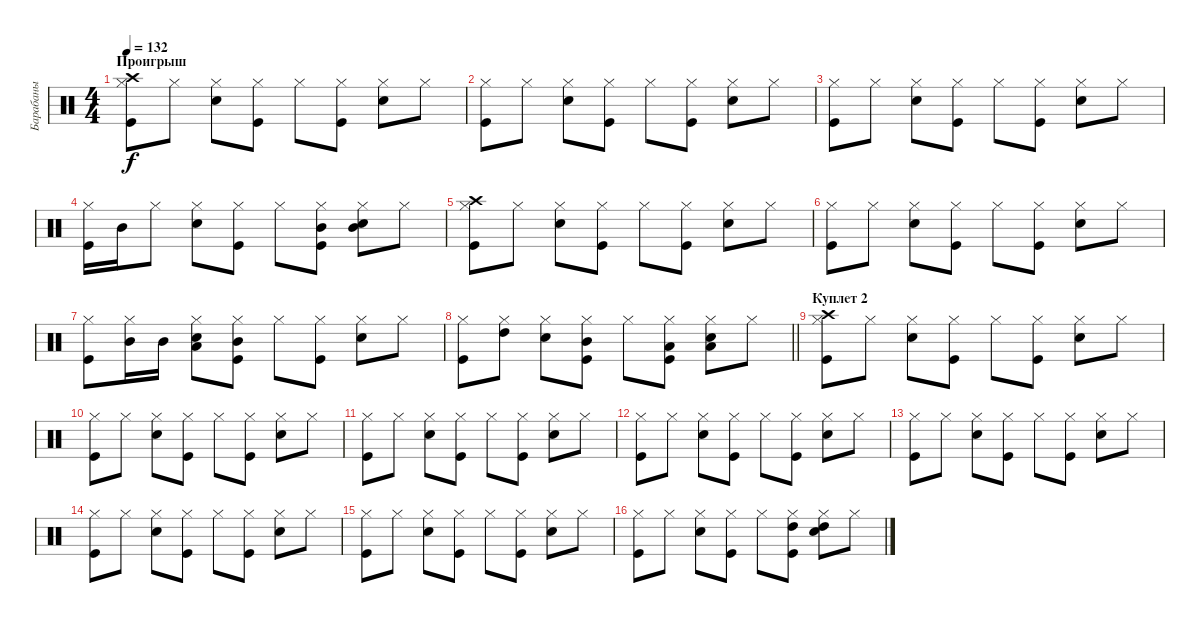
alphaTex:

\track ("Барабаны" "Барабаны") {instrument percussion}
\staff {score}
\articulation defaults
\ts (4 4)
\section ("" "Проигрыш")
\tempo 132
\clef neutral
\ks c
("Kick (hit)" "Hi-Hat (closed)" "Crash high (hit)").8{dy f} "Hi-Hat (closed)".8 ("Snare (hit) 2" "Hi-Hat (closed)").8 ("Kick (hit)" "Hi-Hat (closed)").8 "Hi-Hat (closed)".8 ("Kick (hit)" "Hi-Hat (closed)").8 ("Snare (hit) 2" "Hi-Hat (closed)").8 "Hi-Hat (closed)".8 |
("Kick (hit)" "Hi-Hat (closed)").8 "Hi-Hat (closed)".8 ("Snare (hit) 2" "Hi-Hat (closed)").8 ("Kick (hit)" "Hi-Hat (closed)").8 "Hi-Hat (closed)".8 ("Kick (hit)" "Hi-Hat (closed)").8 ("Snare (hit) 2" "Hi-Hat (closed)").8 "Hi-Hat (closed)".8 |
("Kick (hit)" "Hi-Hat (closed)").8 "Hi-Hat (closed)".8 ("Snare (hit) 2" "Hi-Hat (closed)").8 ("Kick (hit)" "Hi-Hat (closed)").8 "Hi-Hat (closed)".8 ("Kick (hit)" "Hi-Hat (closed)").8 ("Snare (hit) 2" "Hi-Hat (closed)").8 "Hi-Hat (closed)".8 |
("Kick (hit)" "Hi-Hat (closed)").16 "Mid Tom (hit)".16 "Hi-Hat (closed)".8 ("Snare (hit) 2" "Hi-Hat (closed)").8 ("Kick (hit)" "Hi-Hat (closed)").8 "Hi-Hat (closed)".8 ("Kick (hit)" "Hi-Hat (closed)" "Mid Tom (hit)").8 ("Snare (hit) 2" "Hi-Hat (closed)" "Mid Tom (hit)").8 "Hi-Hat (closed)".8 |
("Kick (hit)" "Hi-Hat (closed)" "Crash high (hit)").8 "Hi-Hat (closed)".8 ("Snare (hit) 2" "Hi-Hat (closed)").8 ("Kick (hit)" "Hi-Hat (closed)").8 "Hi-Hat (closed)".8 ("Kick (hit)" "Hi-Hat (closed)").8 ("Snare (hit) 2" "Hi-Hat (closed)").8 "Hi-Hat (closed)".8 |
("Kick (hit)" "Hi-Hat (closed)").8 "Hi-Hat (closed)".8 ("Snare (hit) 2" "Hi-Hat (closed)").8 ("Kick (hit)" "Hi-Hat (closed)").8 "Hi-Hat (closed)".8 ("Kick (hit)" "Hi-Hat (closed)").8 ("Snare (hit) 2" "Hi-Hat (closed)").8 "Hi-Hat (closed)".8 |
("Kick (hit)" "Hi-Hat (closed)").8 ("Hi-Hat (closed)" "Mid Tom (hit)").16 "Mid Tom (hit)".16 ("Snare (hit) 2" "Hi-Hat (closed)" "Low Tom (hit)").8 ("Kick (hit)" "Hi-Hat (closed)" "Mid Tom (hit)").8 "Hi-Hat (closed)".8 ("Kick (hit)" "Hi-Hat (closed)").8 ("Snare (hit) 2" "Hi-Hat (closed)").8 "Hi-Hat (closed)".8 |
\barLineRight lightlight
("Kick (hit)" "Hi-Hat (closed)").8 ("Hi-Hat (closed)" "High Tom (hit)").8 ("Snare (hit) 2" "Hi-Hat (closed)").8 ("Kick (hit)" "Hi-Hat (closed)" "Mid Tom (hit)").8 "Hi-Hat (closed)".8 ("Kick (hit)" "Hi-Hat (closed)" "Low Tom (hit)").8 ("Snare (hit) 2" "Hi-Hat (closed)" "Low Tom (hit)").8 "Hi-Hat (closed)".8 |
\section ("" "Куплет 2")
("Kick (hit)" "Hi-Hat (closed)" "Crash high (hit)").8 "Hi-Hat (closed)".8 ("Snare (hit) 2" "Hi-Hat (closed)").8 ("Kick (hit)" "Hi-Hat (closed)").8 "Hi-Hat (closed)".8 ("Kick (hit)" "Hi-Hat (closed)").8 ("Snare (hit) 2" "Hi-Hat (closed)").8 "Hi-Hat (closed)".8 |
("Kick (hit)" "Hi-Hat (closed)").8 "Hi-Hat (closed)".8 ("Snare (hit) 2" "Hi-Hat (closed)").8 ("Kick (hit)" "Hi-Hat (closed)").8 "Hi-Hat (closed)".8 ("Kick (hit)" "Hi-Hat (closed)").8 ("Snare (hit) 2" "Hi-Hat (closed)").8 "Hi-Hat (closed)".8 |
("Kick (hit)" "Hi-Hat (closed)").8 "Hi-Hat (closed)".8 ("Snare (hit) 2" "Hi-Hat (closed)").8 ("Kick (hit)" "Hi-Hat (closed)").8 "Hi-Hat (closed)".8 ("Kick (hit)" "Hi-Hat (closed)").8 ("Snare (hit) 2" "Hi-Hat (closed)").8 "Hi-Hat (closed)".8 |
("Kick (hit)" "Hi-Hat (closed)").8 "Hi-Hat (closed)".8 ("Snare (hit) 2" "Hi-Hat (closed)").8 ("Kick (hit)" "Hi-Hat (closed)").8 "Hi-Hat (closed)".8 ("Kick (hit)" "Hi-Hat (closed)").8 ("Snare (hit) 2" "Hi-Hat (closed)").8 "Hi-Hat (closed)".8 |
("Kick (hit)" "Hi-Hat (closed)").8 "Hi-Hat (closed)".8 ("Snare (hit) 2" "Hi-Hat (closed)").8 ("Kick (hit)" "Hi-Hat (closed)").8 "Hi-Hat (closed)".8 ("Kick (hit)" "Hi-Hat (closed)").8 ("Snare (hit) 2" "Hi-Hat (closed)").8 "Hi-Hat (closed)".8 |
("Kick (hit)" "Hi-Hat (closed)").8 "Hi-Hat (closed)".8 ("Snare (hit) 2" "Hi-Hat (closed)").8 ("Kick (hit)" "Hi-Hat (closed)").8 "Hi-Hat (closed)".8 ("Kick (hit)" "Hi-Hat (closed)").8 ("Snare (hit) 2" "Hi-Hat (closed)").8 "Hi-Hat (closed)".8 |
("Kick (hit)" "Hi-Hat (closed)").8 "Hi-Hat (closed)".8 ("Snare (hit) 2" "Hi-Hat (closed)").8 ("Kick (hit)" "Hi-Hat (closed)").8 "Hi-Hat (closed)".8 ("Kick (hit)" "Hi-Hat (closed)").8 ("Snare (hit) 2" "Hi-Hat (closed)").8 "Hi-Hat (closed)".8 |
("Kick (hit)" "Hi-Hat (closed)").8 "Hi-Hat (closed)".8 ("Snare (hit) 2" "Hi-Hat (closed)").8 ("Kick (hit)" "Hi-Hat (closed)").8 "Hi-Hat (closed)".8 ("Kick (hit)" "Hi-Hat (closed)" "High Tom (hit)").8 ("Snare (hit) 2" "Hi-Hat (closed)" "High Tom (hit)").8 "Hi-Hat (closed)".8
